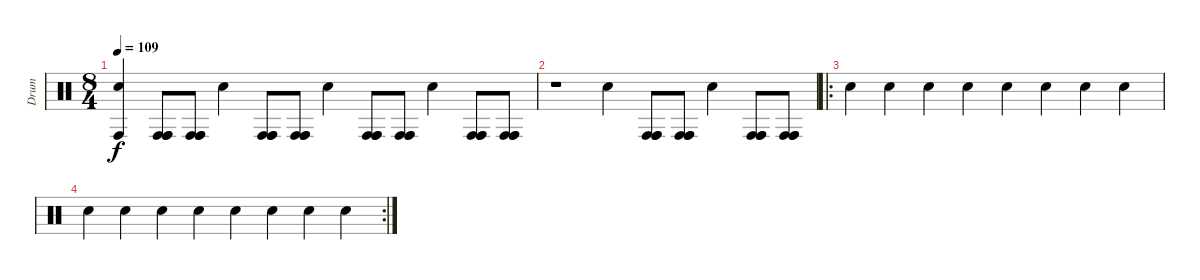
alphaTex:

\track ("Drum" "Drum") {instrument percussion}
\staff {score}
\articulation defaults
\ts (8 4)
\tempo 109
\clef neutral
\ks c
("Conga high (hit)" "Hand Clap (hit)").4{dy f} ("Conga high (hit)" "Conga high (hit)" "Conga high (hit)").8 ("Conga high (hit)" "Conga high (hit)" "Conga high (hit)").8 "Hand Clap (hit)".4 ("Conga high (hit)" "Conga high (hit)" "Conga high (hit)").8 ("Conga high (hit)" "Conga high (hit)" "Conga high (hit)").8 "Hand Clap (hit)".4 ("Conga high (hit)" "Conga high (hit)" "Conga high (hit)").8 ("Conga high (hit)" "Conga high (hit)" "Conga high (hit)").8 "Hand Clap (hit)".4 ("Conga high (hit)" "Conga high (hit)" "Conga high (hit)").8 ("Conga high (hit)" "Conga high (hit)" "Conga high (hit)").8 |
r.1 "Hand Clap (hit)".4 ("Conga high (hit)" "Conga high (hit)" "Conga high (hit)").8 ("Conga high (hit)" "Conga high (hit)" "Conga high (hit)").8 "Hand Clap (hit)".4 ("Conga high (hit)" "Conga high (hit)" "Conga high (hit)").8 ("Conga high (hit)" "Conga high (hit)" "Conga high (hit)").8 |
\ro "Snare (hit)"{x}.4 "Hand Clap (hit)".4 "Hand Clap (hit)"{x}.4 "Hand Clap (hit)".4 "Hand Clap (hit)"{x}.4 "Hand Clap (hit)".4 "Hand Clap (hit)"{x}.4 "Hand Clap (hit)".4
|
\rc 2 "Snare (hit)"{x}.4 "Hand Clap (hit)".4 "Hand Clap (hit)"{x}.4 "Hand Clap (hit)".4 "Hand Clap (hit)"{x}.4 "Hand Clap (hit)".4 "Hand Clap (hit)"{x}.4 "Hand Clap (hit)".4
